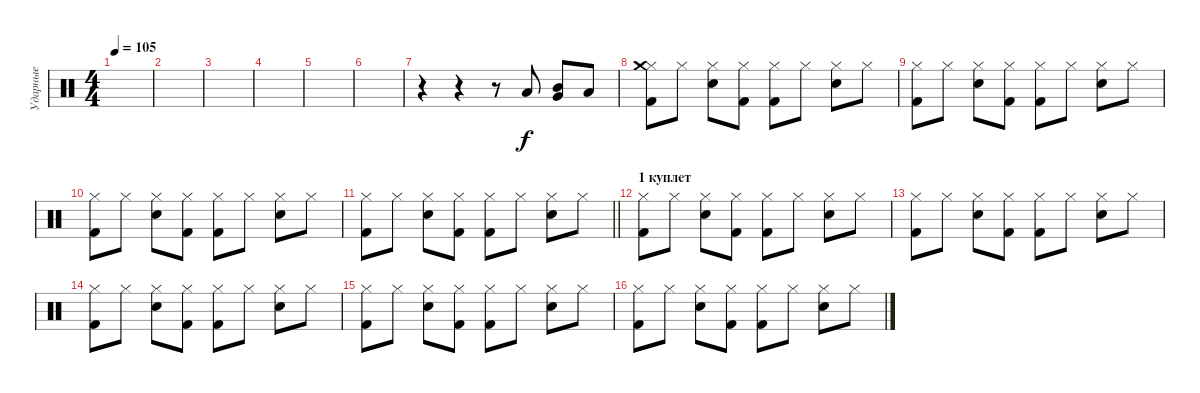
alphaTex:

\track ("Ударные" "Ударные") {instrument percussion}
\staff {score}
\articulation defaults
\ts (4 4)
\tempo 105
\clef neutral
\ks c
|
|
|
|
|
|
r.4 r.4 r.8 "Low Tom (hit)".8 ("Mid Tom (hit)" "Very Low Tom (hit)").8 "Low Floor Tom (hit)".8 |
("Kick (hit) 2" "Hi-Hat (closed)" "Crash medium (hit)").8 "Hi-Hat (closed)".8 ("Hi-Hat (closed)" "Electric Snare (hit)").8 ("Kick (hit) 2" "Hi-Hat (closed)").8 ("Kick (hit) 2" "Hi-Hat (closed)").8 "Hi-Hat (closed)".8 ("Electric Snare (hit)" "Hi-Hat (closed)").8 "Hi-Hat (closed)".8 |
("Kick (hit) 2" "Hi-Hat (closed)").8 "Hi-Hat (closed)".8 ("Hi-Hat (closed)" "Electric Snare (hit)").8 ("Kick (hit) 2" "Hi-Hat (closed)").8 ("Kick (hit) 2" "Hi-Hat (closed)").8 "Hi-Hat (closed)".8 ("Electric Snare (hit)" "Hi-Hat (closed)").8 "Hi-Hat (closed)".8 |
("Kick (hit) 2" "Hi-Hat (closed)").8 "Hi-Hat (closed)".8 ("Hi-Hat (closed)" "Electric Snare (hit)").8 ("Kick (hit) 2" "Hi-Hat (closed)").8 ("Kick (hit) 2" "Hi-Hat (closed)").8 "Hi-Hat (closed)".8 ("Electric Snare (hit)" "Hi-Hat (closed)").8 "Hi-Hat (closed)".8 |
\barLineRight lightlight
("Kick (hit) 2" "Hi-Hat (closed)").8 "Hi-Hat (closed)".8 ("Hi-Hat (closed)" "Electric Snare (hit)").8 ("Kick (hit) 2" "Hi-Hat (closed)").8 ("Kick (hit) 2" "Hi-Hat (closed)").8 "Hi-Hat (closed)".8 ("Electric Snare (hit)" "Hi-Hat (closed)").8 "Hi-Hat (closed)".8 |
\section ("" "1 куплет")
("Kick (hit) 2" "Hi-Hat (closed)").8 "Hi-Hat (closed)".8 ("Hi-Hat (closed)" "Electric Snare (hit)").8 ("Kick (hit) 2" "Hi-Hat (closed)").8 ("Kick (hit) 2" "Hi-Hat (closed)").8 "Hi-Hat (closed)".8 ("Electric Snare (hit)" "Hi-Hat (closed)").8 "Hi-Hat (closed)".8 |
("Kick (hit) 2" "Hi-Hat (closed)").8 "Hi-Hat (closed)".8 ("Hi-Hat (closed)" "Electric Snare (hit)").8 ("Kick (hit) 2" "Hi-Hat (closed)").8 ("Kick (hit) 2" "Hi-Hat (closed)").8 "Hi-Hat (closed)".8 ("Electric Snare (hit)" "Hi-Hat (closed)").8 "Hi-Hat (closed)".8 |
("Kick (hit) 2" "Hi-Hat (closed)").8 "Hi-Hat (closed)".8 ("Hi-Hat (closed)" "Electric Snare (hit)").8 ("Kick (hit) 2" "Hi-Hat (closed)").8 ("Kick (hit) 2" "Hi-Hat (closed)").8 "Hi-Hat (closed)".8 ("Electric Snare (hit)" "Hi-Hat (closed)").8 "Hi-Hat (closed)".8 |
("Kick (hit) 2" "Hi-Hat (closed)").8 "Hi-Hat (closed)".8 ("Hi-Hat (closed)" "Electric Snare (hit)").8 ("Kick (hit) 2" "Hi-Hat (closed)").8 ("Kick (hit) 2" "Hi-Hat (closed)").8 "Hi-Hat (closed)".8 ("Electric Snare (hit)" "Hi-Hat (closed)").8 "Hi-Hat (closed)".8 |
("Kick (hit) 2" "Hi-Hat (closed)").8 "Hi-Hat (closed)".8 ("Hi-Hat (closed)" "Electric Snare (hit)").8 ("Kick (hit) 2" "Hi-Hat (closed)").8 ("Kick (hit) 2" "Hi-Hat (closed)").8 "Hi-Hat (closed)".8 ("Electric Snare (hit)" "Hi-Hat (closed)").8 "Hi-Hat (closed)".8
